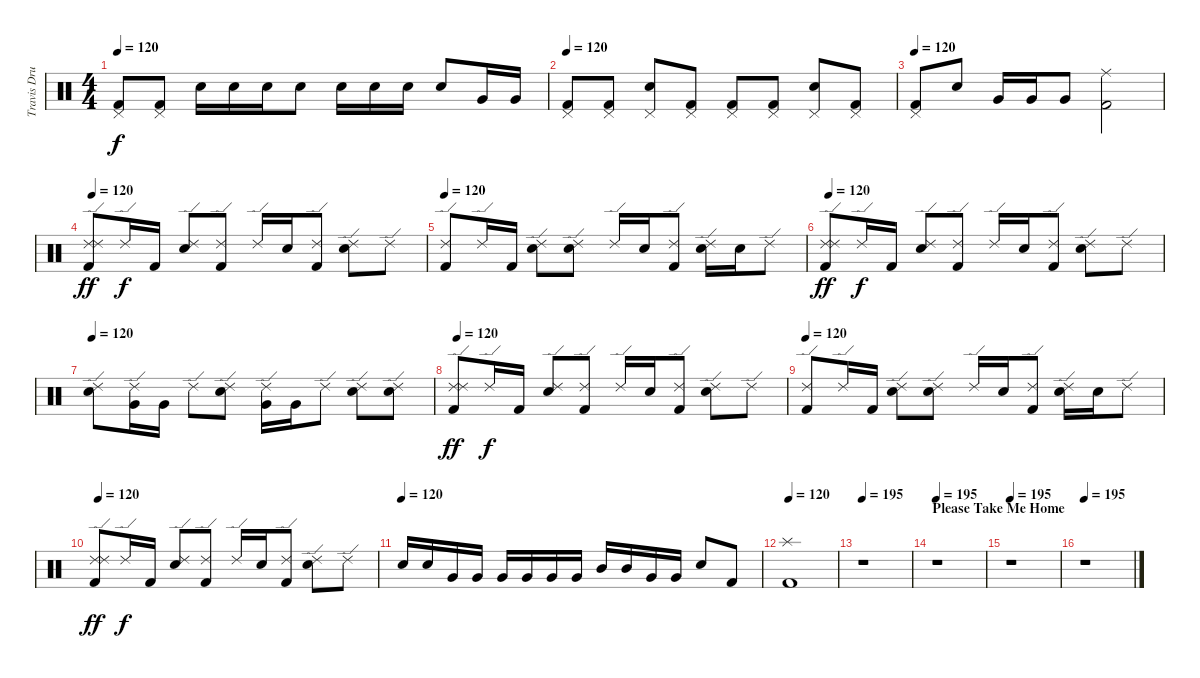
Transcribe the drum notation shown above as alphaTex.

\track ("Travis Drums" "Travis Dru") {instrument percussion}
\staff {score}
\articulation defaults
\ts (4 4)
\tempo 120
\clef neutral
\ks c
("Pedal Hi-Hat (hit)" "Kick (hit) 2").8{dy f} ("Pedal Hi-Hat (hit)" "Kick (hit) 2").8 "Electric Snare (hit)".16 "Electric Snare (hit)".16 "Electric Snare (hit)".16 "Electric Snare (hit)".8 "Electric Snare (hit)".16 "Electric Snare (hit)".16 "Electric Snare (hit)".16 "Electric Snare (hit)".8 "Very Low Tom (hit)".16 "Very Low Tom (hit)".16 |
\tempo 120
("Pedal Hi-Hat (hit)" "Kick (hit) 2").8 ("Pedal Hi-Hat (hit)" "Kick (hit) 2").8 ("Pedal Hi-Hat (hit)" "Electric Snare (hit)").8 ("Pedal Hi-Hat (hit)" "Kick (hit) 2").8 ("Pedal Hi-Hat (hit)" "Kick (hit) 2").8 ("Pedal Hi-Hat (hit)" "Kick (hit) 2").8 ("Pedal Hi-Hat (hit)" "Electric Snare (hit)").8 ("Pedal Hi-Hat (hit)" "Kick (hit) 2").8 |
\tempo 120
("Pedal Hi-Hat (hit)" "Kick (hit) 2").8 "Electric Snare (hit)".8 "Very Low Tom (hit)".16 "Very Low Tom (hit)".16 "Very Low Tom (hit)".8 ("Ride (middle)" "Kick (hit) 2").2 |
\tempo 120
("Ride (edge) 2" "Ride (edge) 2" "Kick (hit) 2").8{dy ff} "Ride (edge) 2".16{dy f} "Kick (hit) 2".16 ("Ride (edge) 2" "Electric Snare (hit)").8 ("Ride (edge) 2" "Kick (hit) 2").8 "Ride (edge) 2".16 "Electric Snare (hit)".16 ("Ride (edge) 2" "Kick (hit) 2").8 ("Ride (edge) 2" "Electric Snare (hit)").8 "Ride (edge) 2".8 |
\tempo 120
("Ride (edge) 2" "Kick (hit) 2").8 "Ride (edge) 2".16 "Kick (hit) 2".16 ("Ride (edge) 2" "Electric Snare (hit)").8 ("Ride (edge) 2" "Electric Snare (hit)").8 "Ride (edge) 2".16 "Electric Snare (hit)".16 ("Ride (edge) 2" "Kick (hit) 2").8 ("Ride (edge) 2" "Electric Snare (hit)").16 "Electric Snare (hit)".16 "Ride (edge) 2".8 |
\tempo 120
("Ride (edge) 2" "Ride (edge) 2" "Kick (hit) 2").8{dy ff} "Ride (edge) 2".16{dy f} "Kick (hit) 2".16 ("Ride (edge) 2" "Electric Snare (hit)").8 ("Ride (edge) 2" "Kick (hit) 2").8 "Ride (edge) 2".16 "Electric Snare (hit)".16 ("Ride (edge) 2" "Kick (hit) 2").8 ("Ride (edge) 2" "Electric Snare (hit)").8 "Ride (edge) 2".8 |
\tempo 120
("Ride (edge) 2" "Electric Snare (hit)").8 ("Ride (edge) 2" "Very Low Tom (hit)").16 "Very Low Tom (hit)".16 "Ride (edge) 2".8 ("Ride (edge) 2" "Electric Snare (hit)").8 ("Ride (edge) 2" "Very Low Tom (hit)").16 "Very Low Tom (hit)".16 "Ride (edge) 2".8 ("Ride (edge) 2" "Electric Snare (hit)").8 ("Ride (edge) 2" "Electric Snare (hit)").8 |
\tempo 120
("Ride (edge) 2" "Ride (edge) 2" "Kick (hit) 2").8{dy ff} "Ride (edge) 2".16{dy f} "Kick (hit) 2".16 ("Ride (edge) 2" "Electric Snare (hit)").8 ("Ride (edge) 2" "Kick (hit) 2").8 "Ride (edge) 2".16 "Electric Snare (hit)".16 ("Ride (edge) 2" "Kick (hit) 2").8 ("Ride (edge) 2" "Electric Snare (hit)").8 "Ride (edge) 2".8 |
\tempo 120
("Ride (edge) 2" "Kick (hit) 2").8 "Ride (edge) 2".16 "Kick (hit) 2".16 ("Ride (edge) 2" "Electric Snare (hit)").8 ("Ride (edge) 2" "Electric Snare (hit)").8 "Ride (edge) 2".16 "Electric Snare (hit)".16 ("Ride (edge) 2" "Kick (hit) 2").8 ("Ride (edge) 2" "Electric Snare (hit)").16 "Electric Snare (hit)".16 "Ride (edge) 2".8 |
\tempo 120
("Ride (edge) 2" "Ride (edge) 2" "Kick (hit) 2").8{dy ff} "Ride (edge) 2".16{dy f} "Kick (hit) 2".16 ("Ride (edge) 2" "Electric Snare (hit)").8 ("Ride (edge) 2" "Kick (hit) 2").8 "Ride (edge) 2".16 "Electric Snare (hit)".16 ("Ride (edge) 2" "Kick (hit) 2").8 ("Ride (edge) 2" "Electric Snare (hit)").8 "Ride (edge) 2".8 |
\tempo (120)
"Electric Snare (hit)".16 "Electric Snare (hit)".16 "Very Low Tom (hit)".16 "Very Low Tom (hit)".16 "Very Low Tom (hit)".16 "Very Low Tom (hit)".16 "Very Low Tom (hit)".16 "Very Low Tom (hit)".16 "Mid Tom (hit)".16 "Mid Tom (hit)".16 "Very Low Tom (hit)".16 "Very Low Tom (hit)".16 "Electric Snare (hit)".8 "Kick (hit) 2".8 |
\tempo 120
("Splash (hit)" "Kick (hit) 2").1 |
\tempo 195
r.1 |
\section ("" "Please Take Me Home")
\tempo 195
r.1 |
\tempo 195
r.1 |
\tempo 195
r.1
